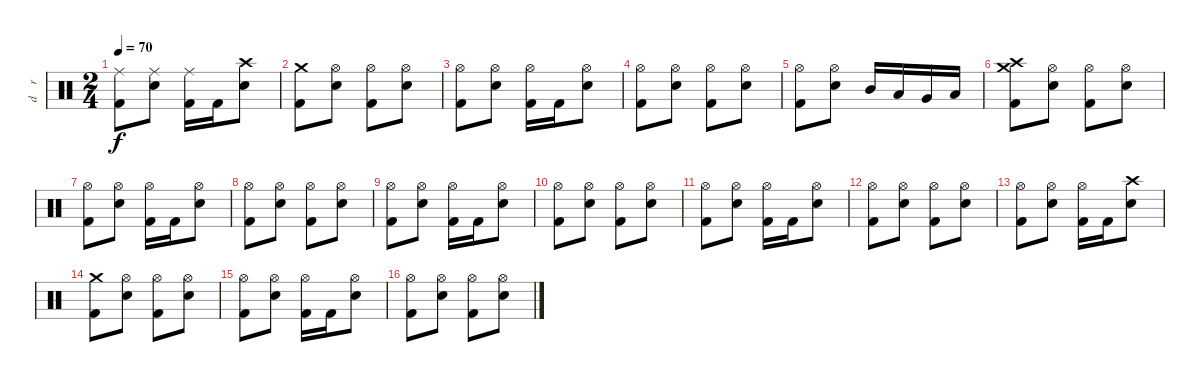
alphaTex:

\track ("d    r     u    m    s" "d    r    ") {instrument percussion}
\staff {score}
\articulation defaults
\ts (2 4)
\tempo 70
\clef neutral
\ks c
("Ride (middle)" "Kick (hit) 2").8{dy f} ("Ride (middle)" "Electric Snare (hit)").8 ("Ride (middle)" "Kick (hit) 2").16 "Kick (hit) 2".16 ("Crash high (hit)" "Electric Snare (hit)").8 |
("Crash medium (hit)" "Kick (hit) 2").8 ("Hi-Hat (open)" "Electric Snare (hit)").8 ("Hi-Hat (open)" "Kick (hit) 2").8 ("Hi-Hat (open)" "Electric Snare (hit)").8 |
("Hi-Hat (open)" "Kick (hit) 2").8 ("Hi-Hat (open)" "Electric Snare (hit)").8 ("Hi-Hat (open)" "Kick (hit) 2").16 "Kick (hit) 2".16 ("Hi-Hat (open)" "Electric Snare (hit)").8 |
("Hi-Hat (open)" "Kick (hit) 2").8 ("Hi-Hat (open)" "Electric Snare (hit)").8 ("Hi-Hat (open)" "Kick (hit) 2").8 ("Hi-Hat (open)" "Electric Snare (hit)").8 |
("Hi-Hat (open)" "Kick (hit) 2").8 ("Hi-Hat (open)" "Electric Snare (hit)").8 "Mid Tom (hit)".16 "Low Tom (hit)".16 "Very Low Tom (hit)".16 "Low Floor Tom (hit)".16 |
("Crash high (hit)" "Crash medium (hit)" "Kick (hit) 2").8 ("Hi-Hat (open)" "Electric Snare (hit)").8 ("Hi-Hat (open)" "Kick (hit) 2").8 ("Hi-Hat (open)" "Electric Snare (hit)").8 |
("Hi-Hat (open)" "Kick (hit) 2").8 ("Hi-Hat (open)" "Electric Snare (hit)").8 ("Hi-Hat (open)" "Kick (hit) 2").16 "Kick (hit) 2".16 ("Hi-Hat (open)" "Electric Snare (hit)").8 |
("Hi-Hat (open)" "Kick (hit) 2").8 ("Hi-Hat (open)" "Electric Snare (hit)").8 ("Hi-Hat (open)" "Kick (hit) 2").8 ("Hi-Hat (open)" "Electric Snare (hit)").8 |
("Hi-Hat (open)" "Kick (hit) 2").8 ("Hi-Hat (open)" "Electric Snare (hit)").8 ("Hi-Hat (open)" "Kick (hit) 2").16 "Kick (hit) 2".16 ("Hi-Hat (open)" "Electric Snare (hit)").8 |
("Hi-Hat (open)" "Kick (hit) 2").8 ("Hi-Hat (open)" "Electric Snare (hit)").8 ("Hi-Hat (open)" "Kick (hit) 2").8 ("Hi-Hat (open)" "Electric Snare (hit)").8 |
("Hi-Hat (open)" "Kick (hit) 2").8 ("Hi-Hat (open)" "Electric Snare (hit)").8 ("Hi-Hat (open)" "Kick (hit) 2").16 "Kick (hit) 2".16 ("Hi-Hat (open)" "Electric Snare (hit)").8 |
("Hi-Hat (open)" "Kick (hit) 2").8 ("Hi-Hat (open)" "Electric Snare (hit)").8 ("Hi-Hat (open)" "Kick (hit) 2").8 ("Hi-Hat (open)" "Electric Snare (hit)").8 |
("Hi-Hat (open)" "Kick (hit) 2").8 ("Hi-Hat (open)" "Electric Snare (hit)").8 ("Hi-Hat (open)" "Kick (hit) 2").16 "Kick (hit) 2".16 ("Crash high (hit)" "Electric Snare (hit)").8 |
("Crash medium (hit)" "Kick (hit) 2").8 ("Hi-Hat (open)" "Electric Snare (hit)").8 ("Hi-Hat (open)" "Kick (hit) 2").8 ("Hi-Hat (open)" "Electric Snare (hit)").8 |
("Hi-Hat (open)" "Kick (hit) 2").8 ("Hi-Hat (open)" "Electric Snare (hit)").8 ("Hi-Hat (open)" "Kick (hit) 2").16 "Kick (hit) 2".16 ("Hi-Hat (open)" "Electric Snare (hit)").8 |
("Hi-Hat (open)" "Kick (hit) 2").8 ("Hi-Hat (open)" "Electric Snare (hit)").8 ("Hi-Hat (open)" "Kick (hit) 2").8 ("Hi-Hat (open)" "Electric Snare (hit)").8
